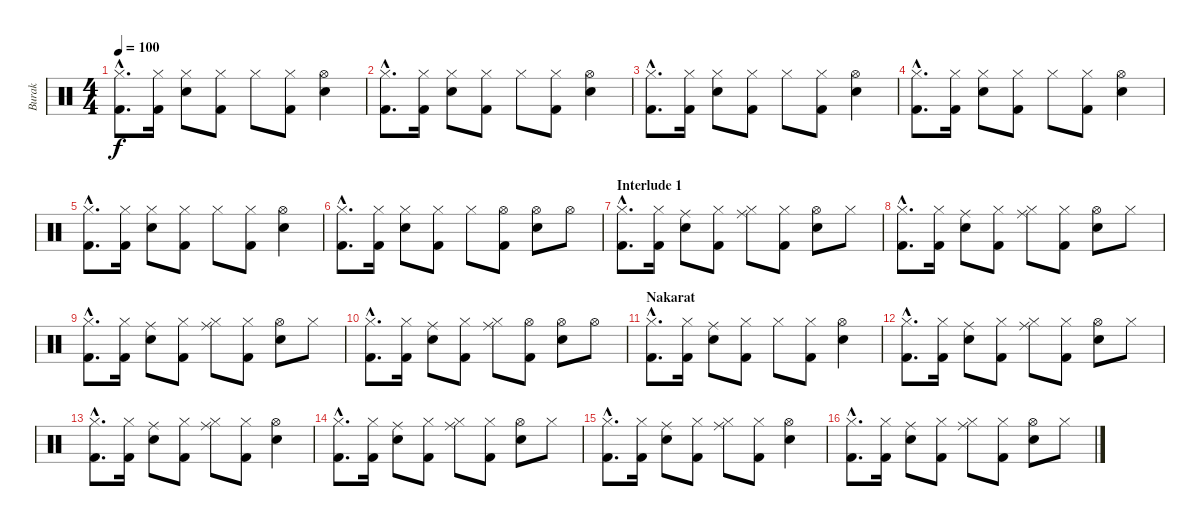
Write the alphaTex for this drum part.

\track ("Burak" "Burak") {instrument percussion}
\staff {score}
\articulation defaults
\ts (4 4)
\tempo 100
\clef neutral
\ks c
("Kick (hit) 2"{hac} "Hi-Hat (closed)"{hac}).8{d dy f} ("Kick (hit) 2" "Hi-Hat (closed)").16 ("Electric Snare (hit)" "Hi-Hat (closed)").8 ("Kick (hit) 2" "Hi-Hat (closed)").8 "Hi-Hat (closed)".8 ("Kick (hit) 2" "Hi-Hat (closed)").8 ("Electric Snare (hit)" "Hi-Hat (open)").4 |
("Kick (hit) 2"{hac} "Hi-Hat (closed)"{hac}).8{d} ("Kick (hit) 2" "Hi-Hat (closed)").16 ("Electric Snare (hit)" "Hi-Hat (closed)").8 ("Kick (hit) 2" "Hi-Hat (closed)").8 "Hi-Hat (closed)".8 ("Kick (hit) 2" "Hi-Hat (closed)").8 ("Electric Snare (hit)" "Hi-Hat (open)").4 |
("Kick (hit) 2"{hac} "Hi-Hat (closed)"{hac}).8{d} ("Kick (hit) 2" "Hi-Hat (closed)").16 ("Electric Snare (hit)" "Hi-Hat (closed)").8 ("Kick (hit) 2" "Hi-Hat (closed)").8 "Hi-Hat (closed)".8 ("Kick (hit) 2" "Hi-Hat (closed)").8 ("Electric Snare (hit)" "Hi-Hat (open)").4 |
("Kick (hit) 2"{hac} "Hi-Hat (closed)"{hac}).8{d} ("Kick (hit) 2" "Hi-Hat (closed)").16 ("Electric Snare (hit)" "Hi-Hat (closed)").8 ("Kick (hit) 2" "Hi-Hat (closed)").8 "Hi-Hat (closed)".8 ("Kick (hit) 2" "Hi-Hat (closed)").8 ("Electric Snare (hit)" "Hi-Hat (open)").4 |
("Kick (hit) 2"{hac} "Hi-Hat (closed)"{hac}).8{d} ("Kick (hit) 2" "Hi-Hat (closed)").16 ("Electric Snare (hit)" "Hi-Hat (closed)").8 ("Kick (hit) 2" "Hi-Hat (closed)").8 "Hi-Hat (closed)".8 ("Kick (hit) 2" "Hi-Hat (closed)").8 ("Electric Snare (hit)" "Hi-Hat (open)").4 |
("Kick (hit) 2"{hac} "Hi-Hat (closed)"{hac}).8{d} ("Kick (hit) 2" "Hi-Hat (closed)").16 ("Electric Snare (hit)" "Hi-Hat (closed)").8 ("Kick (hit) 2" "Hi-Hat (closed)").8 "Hi-Hat (closed)".8 ("Kick (hit) 2" "Hi-Hat (open)").8 ("Electric Snare (hit)" "Hi-Hat (open)").8 "Hi-Hat (open)".8 |
\section ("" "Interlude 1")
("Kick (hit) 2"{hac} "Hi-Hat (closed)"{hac}).8{d} ("Kick (hit) 2" "Hi-Hat (closed)").16 ("Electric Snare (hit)" "Ride (middle)").8 ("Kick (hit) 2" "Hi-Hat (closed)").8 ("Ride (middle)" "Hi-Hat (closed)").8 ("Kick (hit) 2" "Hi-Hat (closed)").8 ("Electric Snare (hit)" "Hi-Hat (open)").8 "Hi-Hat (closed)".8 |
("Kick (hit) 2"{hac} "Hi-Hat (closed)"{hac}).8{d} ("Kick (hit) 2" "Hi-Hat (closed)").16 ("Electric Snare (hit)" "Ride (middle)").8 ("Kick (hit) 2" "Hi-Hat (closed)").8 ("Ride (middle)" "Hi-Hat (closed)").8 ("Kick (hit) 2" "Hi-Hat (closed)").8 ("Electric Snare (hit)" "Hi-Hat (open)").8 "Hi-Hat (closed)".8 |
("Kick (hit) 2"{hac} "Hi-Hat (closed)"{hac}).8{d} ("Kick (hit) 2" "Hi-Hat (closed)").16 ("Electric Snare (hit)" "Ride (middle)").8 ("Kick (hit) 2" "Hi-Hat (closed)").8 ("Ride (middle)" "Hi-Hat (closed)").8 ("Kick (hit) 2" "Hi-Hat (closed)").8 ("Electric Snare (hit)" "Hi-Hat (open)").8 "Hi-Hat (closed)".8 |
("Kick (hit) 2"{hac} "Hi-Hat (closed)"{hac}).8{d} ("Kick (hit) 2" "Hi-Hat (closed)").16 ("Electric Snare (hit)" "Ride (middle)").8 ("Kick (hit) 2" "Hi-Hat (closed)").8 ("Ride (middle)" "Hi-Hat (closed)").8 ("Kick (hit) 2" "Hi-Hat (open)").8 ("Electric Snare (hit)" "Hi-Hat (open)").8 "Hi-Hat (open)".8 |
\section ("" "Nakarat")
("Kick (hit) 2"{hac} "Hi-Hat (closed)"{hac}).8{d} ("Kick (hit) 2" "Hi-Hat (closed)").16 ("Electric Snare (hit)" "Ride (middle)").8 ("Kick (hit) 2" "Hi-Hat (closed)").8 "Hi-Hat (closed)".8 ("Kick (hit) 2" "Hi-Hat (closed)").8 ("Electric Snare (hit)" "Hi-Hat (open)").4 |
("Kick (hit) 2"{hac} "Hi-Hat (closed)"{hac}).8{d} ("Kick (hit) 2" "Hi-Hat (closed)").16 ("Electric Snare (hit)" "Ride (middle)").8 ("Kick (hit) 2" "Hi-Hat (closed)").8 ("Ride (middle)" "Hi-Hat (closed)").8 ("Kick (hit) 2" "Hi-Hat (closed)").8 ("Electric Snare (hit)" "Hi-Hat (open)").8 "Hi-Hat (closed)".8 |
("Kick (hit) 2"{hac} "Hi-Hat (closed)"{hac}).8{d} ("Kick (hit) 2" "Hi-Hat (closed)").16 ("Electric Snare (hit)" "Ride (middle)").8 ("Kick (hit) 2" "Hi-Hat (closed)").8 ("Ride (middle)" "Hi-Hat (closed)").8 ("Kick (hit) 2" "Hi-Hat (closed)").8 ("Electric Snare (hit)" "Hi-Hat (open)").4 |
("Kick (hit) 2"{hac} "Hi-Hat (closed)"{hac}).8{d} ("Kick (hit) 2" "Hi-Hat (closed)").16 ("Electric Snare (hit)" "Ride (middle)").8 ("Kick (hit) 2" "Hi-Hat (closed)").8 ("Ride (middle)" "Hi-Hat (closed)").8 ("Kick (hit) 2" "Hi-Hat (closed)").8 ("Electric Snare (hit)" "Hi-Hat (open)").8 "Hi-Hat (closed)".8 |
("Kick (hit) 2"{hac} "Hi-Hat (closed)"{hac}).8{d} ("Kick (hit) 2" "Hi-Hat (closed)").16 ("Electric Snare (hit)" "Ride (middle)").8 ("Kick (hit) 2" "Hi-Hat (closed)").8 ("Ride (middle)" "Hi-Hat (closed)").8 ("Kick (hit) 2" "Hi-Hat (closed)").8 ("Electric Snare (hit)" "Hi-Hat (open)").4 |
("Kick (hit) 2"{hac} "Hi-Hat (closed)"{hac}).8{d} ("Kick (hit) 2" "Hi-Hat (closed)").16 ("Electric Snare (hit)" "Ride (middle)").8 ("Kick (hit) 2" "Hi-Hat (closed)").8 ("Ride (middle)" "Hi-Hat (closed)").8 ("Kick (hit) 2" "Hi-Hat (closed)").8 ("Electric Snare (hit)" "Hi-Hat (open)").8 "Hi-Hat (closed)".8
